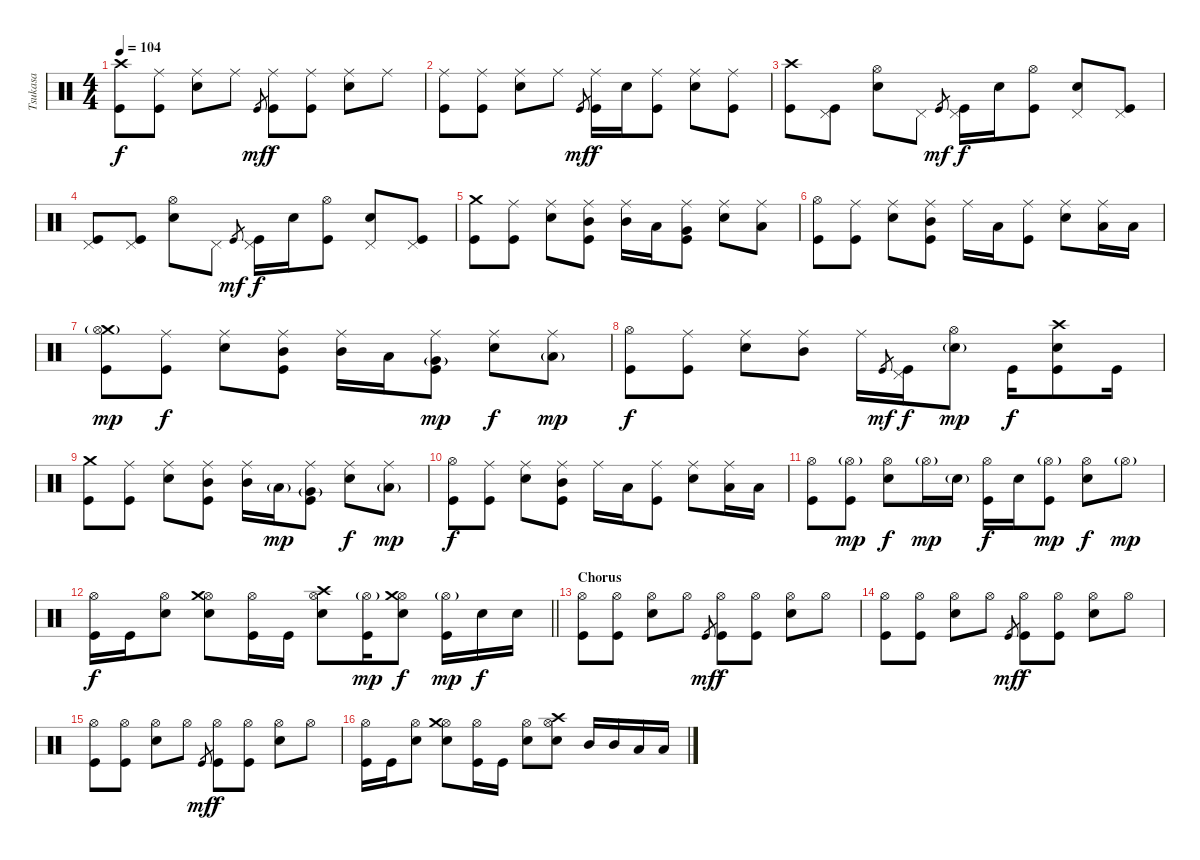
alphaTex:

\track ("Tsukasa" "Tsukasa") {instrument percussion}
\staff {score}
\articulation defaults
\ts (4 4)
\tempo 104
\clef neutral
\ks c
("Crash high (hit)" "Kick (hit)").8{dy f} ("Ride (middle)" "Kick (hit)").8 ("Ride (middle)" "Snare (hit) 2").8 "Ride (middle)".8 "Kick (hit)".8{gr dy mf} ("Ride (middle)" "Kick (hit)").8{dy f} ("Ride (middle)" "Kick (hit)").8 ("Ride (middle)" "Snare (hit) 2").8 "Ride (middle)".8 |
("Ride (middle)" "Kick (hit)").8 ("Ride (middle)" "Kick (hit)").8 ("Ride (middle)" "Snare (hit) 2").8 "Ride (middle)".8 "Kick (hit)".8{gr dy mf} ("Ride (middle)" "Kick (hit)").16{dy f} "Snare (hit) 2".16 ("Ride (middle)" "Kick (hit)").8 ("Ride (middle)" "Snare (hit) 2").8 ("Ride (middle)" "Kick (hit)").8 |
("Crash high (hit)" "Kick (hit)").8 ("Pedal Hi-Hat (hit)" "Kick (hit)").8 ("Hi-Hat (open)" "Snare (hit) 2").8 "Pedal Hi-Hat (hit)".8 "Kick (hit)".8{gr dy mf} ("Pedal Hi-Hat (hit)" "Kick (hit)").16{dy f} "Snare (hit) 2".16 ("Hi-Hat (open)" "Kick (hit)").8 ("Pedal Hi-Hat (hit)" "Snare (hit) 2").8 ("Pedal Hi-Hat (hit)" "Kick (hit)").8 |
("Pedal Hi-Hat (hit)" "Kick (hit)").8 ("Pedal Hi-Hat (hit)" "Kick (hit)").8 ("Hi-Hat (open)" "Snare (hit) 2").8 "Pedal Hi-Hat (hit)".8 "Kick (hit)".8{gr dy mf} ("Pedal Hi-Hat (hit)" "Kick (hit)").16{dy f} "Snare (hit) 2".16 ("Hi-Hat (open)" "Kick (hit)").8 ("Pedal Hi-Hat (hit)" "Snare (hit) 2").8 ("Pedal Hi-Hat (hit)" "Kick (hit)").8 |
("Crash medium (hit)" "Kick (hit)").8 ("Ride (middle)" "Kick (hit)").8 ("Ride (middle)" "Snare (hit) 2").8 ("Ride (middle)" "Mid Tom (hit)" "Kick (hit)").8 ("Ride (middle)" "Mid Tom (hit)").16 "Low Tom (hit)".16 ("Ride (middle)" "Very Low Tom (hit)" "Kick (hit)").8 ("Ride (middle)" "Snare (hit) 2").8 ("Ride (middle)" "Low Floor Tom (hit)").8 |
("Hi-Hat (open)" "Kick (hit)").8 ("Ride (middle)" "Kick (hit)").8 ("Ride (middle)" "Snare (hit) 2").8 ("Ride (middle)" "Mid Tom (hit)" "Kick (hit)").8 "Ride (middle)".16 "Low Tom (hit)".16 ("Ride (middle)" "Kick (hit)").8 ("Ride (middle)" "Snare (hit) 2").8 ("Ride (middle)" "Low Floor Tom (hit)").16 "Low Floor Tom (hit)".16 |
("Crash medium (hit)"{g} "Hi-Hat (open)"{g} "Kick (hit)").8{dy mp} ("Ride (middle)" "Kick (hit)").8{dy f} ("Ride (middle)" "Snare (hit) 2").8 ("Ride (middle)" "Mid Tom (hit)" "Kick (hit)").8 ("Ride (middle)" "Mid Tom (hit)").16 "Low Tom (hit)".16 ("Ride (middle)" "Very Low Tom (hit)"{g} "Kick (hit)").8{dy mp} ("Ride (middle)" "Snare (hit) 2").8{dy f} ("Ride (middle)" "Low Floor Tom (hit)"{g}).8{dy mp} |
("Hi-Hat (open)" "Kick (hit)").8{dy f} ("Ride (middle)" "Kick (hit)").8 ("Ride (middle)" "Snare (hit) 2").8 ("Ride (middle)" "Mid Tom (hit)").8 "Ride (middle)".16 "Kick (hit)".8{gr dy mf} ("Pedal Hi-Hat (hit)" "Kick (hit)").16{dy f} ("Hi-Hat (open)" "Snare (hit) 2"{g}).8{dy mp} "Kick (hit)".16{dy f} ("Crash high (hit)" "Snare (hit) 2" "Kick (hit)").8 "Kick (hit)".16 |
("Crash medium (hit)" "Kick (hit)").8 ("Ride (middle)" "Kick (hit)").8 ("Ride (middle)" "Snare (hit) 2").8 ("Ride (middle)" "Mid Tom (hit)" "Kick (hit)").8 ("Ride (middle)" "Mid Tom (hit)").16 "Low Tom (hit)"{g}.16{dy mp} ("Ride (middle)" "Very Low Tom (hit)"{g} "Kick (hit)").8 ("Ride (middle)" "Snare (hit) 2").8{dy f} ("Ride (middle)" "Low Floor Tom (hit)"{g}).8{dy mp} |
("Hi-Hat (open)" "Kick (hit)").8{dy f} ("Ride (middle)" "Kick (hit)").8 ("Ride (middle)" "Snare (hit) 2").8 ("Ride (middle)" "Mid Tom (hit)" "Kick (hit)").8 "Ride (middle)".16 "Low Tom (hit)".16 ("Ride (middle)" "Kick (hit)").8 ("Ride (middle)" "Snare (hit) 2").8 ("Ride (middle)" "Low Floor Tom (hit)").16 "Low Floor Tom (hit)".16 |
("Hi-Hat (open)" "Kick (hit)").8 ("Hi-Hat (open)"{g} "Kick (hit)").8{dy mp} ("Hi-Hat (open)" "Snare (hit) 2").8{dy f} "Hi-Hat (open)"{g}.16{dy mp} "Snare (hit) 2"{g}.16 ("Hi-Hat (open)" "Kick (hit)").16{dy f} "Snare (hit) 2".16 ("Hi-Hat (open)"{g} "Kick (hit)").8{dy mp} ("Hi-Hat (open)" "Snare (hit) 2").8{dy f} "Hi-Hat (open)"{g}.8{dy mp} |
\barLineRight lightlight
("Hi-Hat (open)" "Kick (hit)").16{dy f} "Kick (hit)".16 ("Hi-Hat (open)" "Snare (hit) 2").8 ("Hi-Hat (open)" "Crash medium (hit)" "Snare (hit) 2").8 ("Hi-Hat (open)" "Kick (hit)").16 "Kick (hit)".16 ("Hi-Hat (open)" "Crash high (hit)" "Snare (hit) 2").8 ("Hi-Hat (open)"{g} "Kick (hit)").16{dy mp} ("Hi-Hat (open)" "Crash medium (hit)" "Snare (hit) 2").8{dy f} ("Hi-Hat (open)"{g} "Kick (hit)").16{dy mp} "Snare (hit) 2".16{dy f} "Snare (hit) 2".16 |
\section ("" "Chorus")
("Hi-Hat (open)" "Kick (hit)").8 ("Hi-Hat (open)" "Kick (hit)").8 ("Hi-Hat (open)" "Snare (hit) 2").8 "Hi-Hat (open)".8 "Kick (hit)".8{gr dy mf} ("Hi-Hat (open)" "Kick (hit)").8{dy f} ("Hi-Hat (open)" "Kick (hit)").8 ("Hi-Hat (open)" "Snare (hit) 2").8 "Hi-Hat (open)".8 |
("Hi-Hat (open)" "Kick (hit)").8 ("Hi-Hat (open)" "Kick (hit)").8 ("Hi-Hat (open)" "Snare (hit) 2").8 "Hi-Hat (open)".8 "Kick (hit)".8{gr dy mf} ("Hi-Hat (open)" "Kick (hit)").8{dy f} ("Hi-Hat (open)" "Kick (hit)").8 ("Hi-Hat (open)" "Snare (hit) 2").8 "Hi-Hat (open)".8 |
("Hi-Hat (open)" "Kick (hit)").8 ("Hi-Hat (open)" "Kick (hit)").8 ("Hi-Hat (open)" "Snare (hit) 2").8 "Hi-Hat (open)".8 "Kick (hit)".8{gr dy mf} ("Hi-Hat (open)" "Kick (hit)").8{dy f} ("Hi-Hat (open)" "Kick (hit)").8 ("Hi-Hat (open)" "Snare (hit) 2").8 "Hi-Hat (open)".8 |
("Hi-Hat (open)" "Kick (hit)").16 "Kick (hit)".16 ("Hi-Hat (open)" "Snare (hit) 2").8 ("Hi-Hat (open)" "Crash medium (hit)" "Snare (hit) 2").8 ("Hi-Hat (open)" "Kick (hit)").16 "Kick (hit)".16 ("Hi-Hat (open)" "Snare (hit) 2").8 ("Hi-Hat (open)" "Crash high (hit)" "Snare (hit) 2").8 "Mid Tom (hit)".16 "Mid Tom (hit)".16 "Low Tom (hit)".16 "Low Tom (hit)".16
